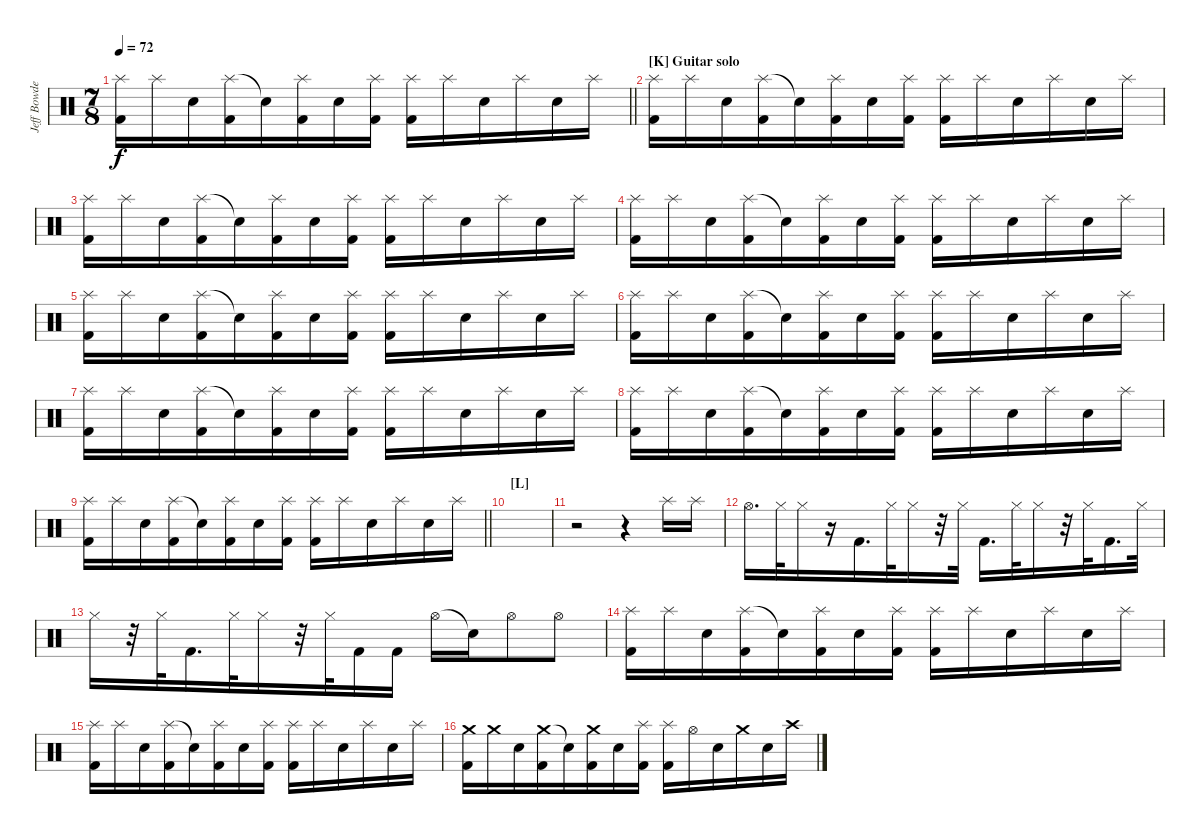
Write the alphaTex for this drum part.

\track ("Jeff Bowders" "Jeff Bowde") {instrument percussion}
\staff {score}
\articulation defaults
\ts (7 8)
\tempo 72
\clef neutral
\barLineRight lightlight
\ks aminor
("Splash (hit)" "Kick (hit) 2").16{dy f} "Splash (hit)".16 "Electric Snare (hit)".16 ("Splash (hit)" "Kick (hit) 2").16 "Snare (hit)"{t}.16 ("Splash (hit)" "Kick (hit) 2").16 "Electric Snare (hit)".16 ("Splash (hit)" "Kick (hit) 2").16 ("Splash (hit)" "Kick (hit) 2").16 "Splash (hit)".16 "Electric Snare (hit)".16 "Splash (hit)".16 "Electric Snare (hit)".16 "Splash (hit)".16 |
\section ("" "[K] Guitar solo")
("Splash (hit)" "Kick (hit) 2").16 "Splash (hit)".16 "Electric Snare (hit)".16 ("Splash (hit)" "Kick (hit) 2").16 "Snare (hit)"{t}.16 ("Splash (hit)" "Kick (hit) 2").16 "Electric Snare (hit)".16 ("Splash (hit)" "Kick (hit) 2").16 ("Splash (hit)" "Kick (hit) 2").16 "Splash (hit)".16 "Electric Snare (hit)".16 "Splash (hit)".16 "Electric Snare (hit)".16 "Splash (hit)".16 |
("Splash (hit)" "Kick (hit) 2").16 "Splash (hit)".16 "Electric Snare (hit)".16 ("Splash (hit)" "Kick (hit) 2").16 "Snare (hit)"{t}.16 ("Splash (hit)" "Kick (hit) 2").16 "Electric Snare (hit)".16 ("Splash (hit)" "Kick (hit) 2").16 ("Splash (hit)" "Kick (hit) 2").16 "Splash (hit)".16 "Electric Snare (hit)".16 "Splash (hit)".16 "Electric Snare (hit)".16 "Splash (hit)".16 |
("Splash (hit)" "Kick (hit) 2").16 "Splash (hit)".16 "Electric Snare (hit)".16 ("Splash (hit)" "Kick (hit) 2").16 "Snare (hit)"{t}.16 ("Splash (hit)" "Kick (hit) 2").16 "Electric Snare (hit)".16 ("Splash (hit)" "Kick (hit) 2").16 ("Splash (hit)" "Kick (hit) 2").16 "Splash (hit)".16 "Electric Snare (hit)".16 "Splash (hit)".16 "Electric Snare (hit)".16 "Splash (hit)".16 |
("Splash (hit)" "Kick (hit) 2").16 "Splash (hit)".16 "Electric Snare (hit)".16 ("Splash (hit)" "Kick (hit) 2").16 "Snare (hit)"{t}.16 ("Splash (hit)" "Kick (hit) 2").16 "Electric Snare (hit)".16 ("Splash (hit)" "Kick (hit) 2").16 ("Splash (hit)" "Kick (hit) 2").16 "Splash (hit)".16 "Electric Snare (hit)".16 "Splash (hit)".16 "Electric Snare (hit)".16 "Splash (hit)".16 |
("Splash (hit)" "Kick (hit) 2").16 "Splash (hit)".16 "Electric Snare (hit)".16 ("Splash (hit)" "Kick (hit) 2").16 "Snare (hit)"{t}.16 ("Splash (hit)" "Kick (hit) 2").16 "Electric Snare (hit)".16 ("Splash (hit)" "Kick (hit) 2").16 ("Splash (hit)" "Kick (hit) 2").16 "Splash (hit)".16 "Electric Snare (hit)".16 "Splash (hit)".16 "Electric Snare (hit)".16 "Splash (hit)".16 |
("Splash (hit)" "Kick (hit) 2").16 "Splash (hit)".16 "Electric Snare (hit)".16 ("Splash (hit)" "Kick (hit) 2").16 "Snare (hit)"{t}.16 ("Splash (hit)" "Kick (hit) 2").16 "Electric Snare (hit)".16 ("Splash (hit)" "Kick (hit) 2").16 ("Splash (hit)" "Kick (hit) 2").16 "Splash (hit)".16 "Electric Snare (hit)".16 "Splash (hit)".16 "Electric Snare (hit)".16 "Splash (hit)".16 |
("Splash (hit)" "Kick (hit) 2").16 "Splash (hit)".16 "Electric Snare (hit)".16 ("Splash (hit)" "Kick (hit) 2").16 "Snare (hit)"{t}.16 ("Splash (hit)" "Kick (hit) 2").16 "Electric Snare (hit)".16 ("Splash (hit)" "Kick (hit) 2").16 ("Splash (hit)" "Kick (hit) 2").16 "Splash (hit)".16 "Electric Snare (hit)".16 "Splash (hit)".16 "Electric Snare (hit)".16 "Splash (hit)".16 |
\barLineRight lightlight
("Splash (hit)" "Kick (hit) 2").16 "Splash (hit)".16 "Electric Snare (hit)".16 ("Splash (hit)" "Kick (hit) 2").16 "Snare (hit)"{t}.16 ("Splash (hit)" "Kick (hit) 2").16 "Electric Snare (hit)".16 ("Splash (hit)" "Kick (hit) 2").16 ("Splash (hit)" "Kick (hit) 2").16 "Splash (hit)".16 "Electric Snare (hit)".16 "Splash (hit)".16 "Electric Snare (hit)".16 "Splash (hit)".16 |
\section ("" "[L]")
|
r.2 r.4 "Splash (hit)".16 "Splash (hit)".16 |
"Hi-Hat (open)".16{d} "Hi-Hat (closed)".32 "Hi-Hat (closed)".16 r.16 "Kick (hit) 2".16{d} "Hi-Hat (closed)".32 "Hi-Hat (closed)".16 r.32 "Hi-Hat (closed)".32 "Kick (hit) 2".16{d} "Hi-Hat (closed)".32 "Hi-Hat (closed)".16 r.32 "Hi-Hat (closed)".32 "Kick (hit) 2".16{d} "Hi-Hat (closed)".32 |
"Hi-Hat (closed)".16 r.32 "Hi-Hat (closed)".32 "Kick (hit) 2".16{d} "Hi-Hat (closed)".32 "Hi-Hat (closed)".16 r.32 "Hi-Hat (closed)".32 "Kick (hit) 2".16 "Kick (hit) 2".16 "Hi-Hat (open)".16 "Snare (hit)"{t}.16 "Hi-Hat (open)".8 "Hi-Hat (open)".8 |
("Splash (hit)" "Kick (hit) 2").16 "Splash (hit)".16 "Electric Snare (hit)".16 ("Splash (hit)" "Kick (hit) 2").16 "Snare (hit)"{t}.16 ("Splash (hit)" "Kick (hit) 2").16 "Electric Snare (hit)".16 ("Splash (hit)" "Kick (hit) 2").16 ("Splash (hit)" "Kick (hit) 2").16 "Splash (hit)".16 "Electric Snare (hit)".16 "Splash (hit)".16 "Electric Snare (hit)".16 "Splash (hit)".16 |
("Splash (hit)" "Kick (hit) 2").16 "Splash (hit)".16 "Electric Snare (hit)".16 ("Splash (hit)" "Kick (hit) 2").16 "Snare (hit)"{t}.16 ("Splash (hit)" "Kick (hit) 2").16 "Electric Snare (hit)".16 ("Splash (hit)" "Kick (hit) 2").16 ("Splash (hit)" "Kick (hit) 2").16 "Splash (hit)".16 "Electric Snare (hit)".16 "Splash (hit)".16 "Electric Snare (hit)".16 "Splash (hit)".16 |
("Crash medium (hit)" "Kick (hit) 2").16 "Crash medium (hit)".16 "Electric Snare (hit)".16 ("Crash medium (hit)" "Kick (hit) 2").16 "Snare (hit)"{t}.16 ("Crash medium (hit)" "Kick (hit) 2").16 "Electric Snare (hit)".16 ("Splash (hit)" "Kick (hit) 2").16 ("Splash (hit)" "Kick (hit) 2").16 "Hi-Hat (open)".16 "Electric Snare (hit)".16 "Crash medium (hit)".16 "Electric Snare (hit)".16 "Crash high (hit)".16
